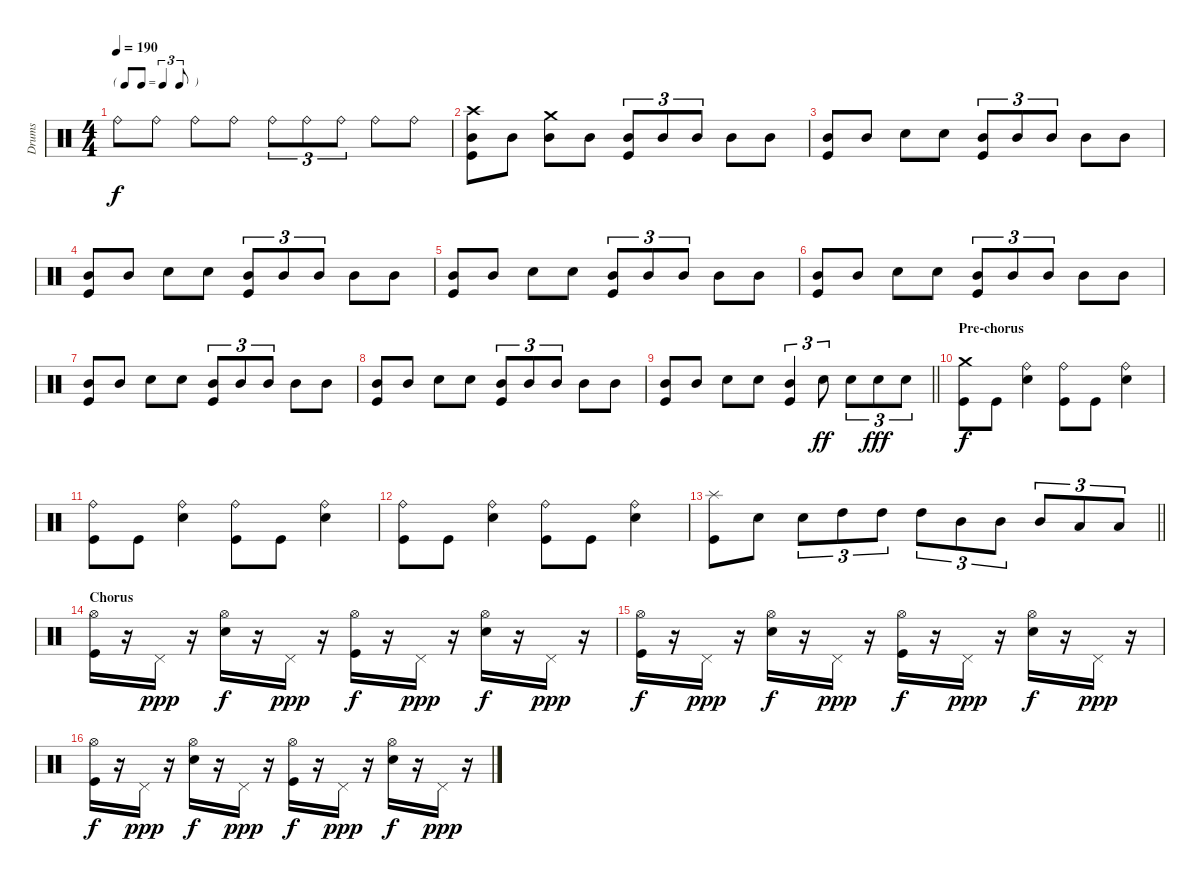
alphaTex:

\track ("Drums" "Drums") {instrument percussion}
\staff {score}
\articulation defaults
\ts (4 4)
\tf triplet8th
\tempo 190
\clef neutral
\ks c "Ride (bell)".8{dy f} "Ride (bell)".8 "Ride (bell)".8 "Ride (bell)".8 "Ride (bell)".8{tu (3 2)} "Ride (bell)".8{tu (3 2)} "Ride (bell)".8{tu (3 2)} "Ride (bell)".8 "Ride (bell)".8
|
("Crash high (hit)" "Mid Tom (hit)" "Kick (hit)").8 "Mid Tom (hit)".8 ("Crash medium (hit)" "Mid Tom (hit)").8 "Mid Tom (hit)".8 ("Mid Tom (hit)" "Kick (hit)").8{tu (3 2)} "Mid Tom (hit)".8{tu (3 2)} "Mid Tom (hit)".8{tu (3 2)} "Mid Tom (hit)".8 "Mid Tom (hit)".8 |
("Mid Tom (hit)" "Kick (hit)").8 "Mid Tom (hit)".8 "Electric Snare (hit)".8 "Electric Snare (hit)".8 ("Mid Tom (hit)" "Kick (hit)").8{tu (3 2)} "Mid Tom (hit)".8{tu (3 2)} "Mid Tom (hit)".8{tu (3 2)} "Mid Tom (hit)".8 "Mid Tom (hit)".8 |
("Mid Tom (hit)" "Kick (hit)").8 "Mid Tom (hit)".8 "Electric Snare (hit)".8 "Electric Snare (hit)".8 ("Mid Tom (hit)" "Kick (hit)").8{tu (3 2)} "Mid Tom (hit)".8{tu (3 2)} "Mid Tom (hit)".8{tu (3 2)} "Mid Tom (hit)".8 "Mid Tom (hit)".8 |
("Mid Tom (hit)" "Kick (hit)").8 "Mid Tom (hit)".8 "Electric Snare (hit)".8 "Electric Snare (hit)".8 ("Mid Tom (hit)" "Kick (hit)").8{tu (3 2)} "Mid Tom (hit)".8{tu (3 2)} "Mid Tom (hit)".8{tu (3 2)} "Mid Tom (hit)".8 "Mid Tom (hit)".8 |
("Mid Tom (hit)" "Kick (hit)").8 "Mid Tom (hit)".8 "Electric Snare (hit)".8 "Electric Snare (hit)".8 ("Mid Tom (hit)" "Kick (hit)").8{tu (3 2)} "Mid Tom (hit)".8{tu (3 2)} "Mid Tom (hit)".8{tu (3 2)} "Mid Tom (hit)".8 "Mid Tom (hit)".8 |
("Mid Tom (hit)" "Kick (hit)").8 "Mid Tom (hit)".8 "Electric Snare (hit)".8 "Electric Snare (hit)".8 ("Mid Tom (hit)" "Kick (hit)").8{tu (3 2)} "Mid Tom (hit)".8{tu (3 2)} "Mid Tom (hit)".8{tu (3 2)} "Mid Tom (hit)".8 "Mid Tom (hit)".8 |
("Mid Tom (hit)" "Kick (hit)").8 "Mid Tom (hit)".8 "Electric Snare (hit)".8 "Electric Snare (hit)".8 ("Mid Tom (hit)" "Kick (hit)").8{tu (3 2)} "Mid Tom (hit)".8{tu (3 2)} "Mid Tom (hit)".8{tu (3 2)} "Mid Tom (hit)".8 "Mid Tom (hit)".8 |
\barLineRight lightlight
("Mid Tom (hit)" "Kick (hit)").8 "Mid Tom (hit)".8 "Electric Snare (hit)".8 "Electric Snare (hit)".8 ("Mid Tom (hit)" "Kick (hit)").4{tu (3 2)} "Electric Snare (hit)".8{tu (3 2) dy ff} "Electric Snare (hit)".8{tu (3 2)} "Electric Snare (hit)".8{tu (3 2) dy fff} "Electric Snare (hit)".8{tu (3 2)} |
\section ("" "Pre-chorus")
("Crash medium (hit)" "Kick (hit)").8{dy f} "Kick (hit)".8 ("Ride (bell)" "Electric Snare (hit)").4 ("Ride (bell)" "Kick (hit)").8 "Kick (hit)".8 ("Ride (bell)" "Electric Snare (hit)").4 |
("Ride (bell)" "Kick (hit)").8 "Kick (hit)".8 ("Ride (bell)" "Electric Snare (hit)").4 ("Ride (bell)" "Kick (hit)").8 "Kick (hit)".8 ("Ride (bell)" "Electric Snare (hit)").4 |
("Ride (bell)" "Kick (hit)").8 "Kick (hit)".8 ("Ride (bell)" "Electric Snare (hit)").4 ("Ride (bell)" "Kick (hit)").8 "Kick (hit)".8 ("Ride (bell)" "Electric Snare (hit)").4 |
\barLineRight lightlight
("Splash (hit)" "Kick (hit)").8 "Electric Snare (hit)".8 "Electric Snare (hit)".8{tu (3 2)} "High Tom (hit)".8{tu (3 2)} "High Tom (hit)".8{tu (3 2)} "High Tom (hit)".8{tu (3 2)} "Mid Tom (hit)".8{tu (3 2)} "Mid Tom (hit)".8{tu (3 2)} "Mid Tom (hit)".8{tu (3 2)} "Low Tom (hit)".8{tu (3 2)} "Low Tom (hit)".8{tu (3 2)} |
\section ("" "Chorus")
("Hi-Hat (open)" "Kick (hit)").16 r.16 "Pedal Hi-Hat (hit)".16{dy ppp} r.16 ("Hi-Hat (open)" "Electric Snare (hit)").16{dy f} r.16 "Pedal Hi-Hat (hit)".16{dy ppp} r.16 ("Hi-Hat (open)" "Kick (hit)").16{dy f} r.16 "Pedal Hi-Hat (hit)".16{dy ppp} r.16 ("Hi-Hat (open)" "Electric Snare (hit)").16{dy f} r.16 "Pedal Hi-Hat (hit)".16{dy ppp} r.16 |
("Hi-Hat (open)" "Kick (hit)").16{dy f} r.16 "Pedal Hi-Hat (hit)".16{dy ppp} r.16 ("Hi-Hat (open)" "Electric Snare (hit)").16{dy f} r.16 "Pedal Hi-Hat (hit)".16{dy ppp} r.16 ("Hi-Hat (open)" "Kick (hit)").16{dy f} r.16 "Pedal Hi-Hat (hit)".16{dy ppp} r.16 ("Hi-Hat (open)" "Electric Snare (hit)").16{dy f} r.16 "Pedal Hi-Hat (hit)".16{dy ppp} r.16 |
("Hi-Hat (open)" "Kick (hit)").16{dy f} r.16 "Pedal Hi-Hat (hit)".16{dy ppp} r.16 ("Hi-Hat (open)" "Electric Snare (hit)").16{dy f} r.16 "Pedal Hi-Hat (hit)".16{dy ppp} r.16 ("Hi-Hat (open)" "Kick (hit)").16{dy f} r.16 "Pedal Hi-Hat (hit)".16{dy ppp} r.16 ("Hi-Hat (open)" "Electric Snare (hit)").16{dy f} r.16 "Pedal Hi-Hat (hit)".16{dy ppp} r.16
